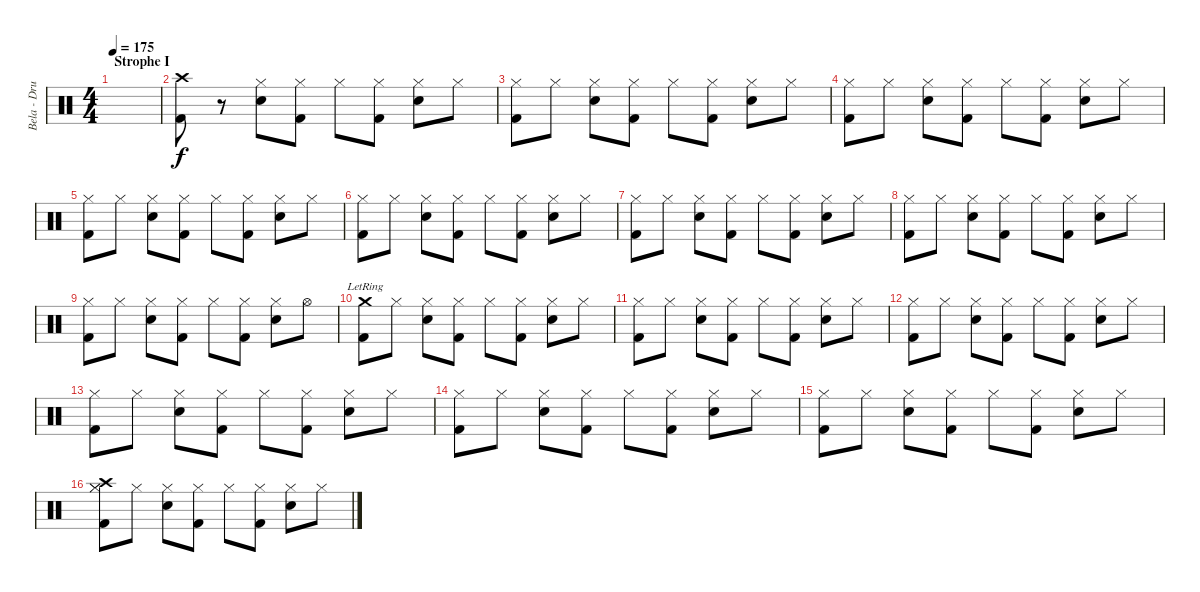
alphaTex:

\track ("Bela - Drums" "Bela - Dru") {instrument percussion}
\staff {score}
\articulation defaults
\ts (4 4)
\section ("" "Strophe I")
\tempo 175
\clef neutral
\ks c
|
("Crash high (hit)" "Kick (hit) 2").8 r.8 ("Hi-Hat (closed)" "Electric Snare (hit)").8{dy f} ("Hi-Hat (closed)" "Kick (hit) 2").8 "Hi-Hat (closed)".8 ("Hi-Hat (closed)" "Kick (hit) 2").8 ("Hi-Hat (closed)" "Electric Snare (hit)").8 "Hi-Hat (closed)".8 |
("Hi-Hat (closed)" "Kick (hit) 2").8 "Hi-Hat (closed)".8 ("Hi-Hat (closed)" "Electric Snare (hit)").8 ("Hi-Hat (closed)" "Kick (hit) 2").8 "Hi-Hat (closed)".8 ("Hi-Hat (closed)" "Kick (hit) 2").8 ("Hi-Hat (closed)" "Electric Snare (hit)").8 "Hi-Hat (closed)".8 |
("Hi-Hat (closed)" "Kick (hit) 2").8 "Hi-Hat (closed)".8 ("Hi-Hat (closed)" "Electric Snare (hit)").8 ("Hi-Hat (closed)" "Kick (hit) 2").8 "Hi-Hat (closed)".8 ("Hi-Hat (closed)" "Kick (hit) 2").8 ("Hi-Hat (closed)" "Electric Snare (hit)").8 "Hi-Hat (closed)".8 |
("Hi-Hat (closed)" "Kick (hit) 2").8 "Hi-Hat (closed)".8 ("Hi-Hat (closed)" "Electric Snare (hit)").8 ("Hi-Hat (closed)" "Kick (hit) 2").8 "Hi-Hat (closed)".8 ("Hi-Hat (closed)" "Kick (hit) 2").8 ("Hi-Hat (closed)" "Electric Snare (hit)").8 "Hi-Hat (closed)".8 |
("Hi-Hat (closed)" "Kick (hit) 2").8 "Hi-Hat (closed)".8 ("Hi-Hat (closed)" "Electric Snare (hit)").8 ("Hi-Hat (closed)" "Kick (hit) 2").8 "Hi-Hat (closed)".8 ("Hi-Hat (closed)" "Kick (hit) 2").8 ("Hi-Hat (closed)" "Electric Snare (hit)").8 "Hi-Hat (closed)".8 |
("Hi-Hat (closed)" "Kick (hit) 2").8 "Hi-Hat (closed)".8 ("Hi-Hat (closed)" "Electric Snare (hit)").8 ("Hi-Hat (closed)" "Kick (hit) 2").8 "Hi-Hat (closed)".8 ("Hi-Hat (closed)" "Kick (hit) 2").8 ("Hi-Hat (closed)" "Electric Snare (hit)").8 "Hi-Hat (closed)".8 |
("Hi-Hat (closed)" "Kick (hit) 2").8 "Hi-Hat (closed)".8 ("Hi-Hat (closed)" "Electric Snare (hit)").8 ("Hi-Hat (closed)" "Kick (hit) 2").8 "Hi-Hat (closed)".8 ("Hi-Hat (closed)" "Kick (hit) 2").8 ("Hi-Hat (closed)" "Electric Snare (hit)").8 "Hi-Hat (closed)".8 |
("Hi-Hat (closed)" "Kick (hit) 2").8 "Hi-Hat (closed)".8 ("Hi-Hat (closed)" "Electric Snare (hit)").8 ("Hi-Hat (closed)" "Kick (hit) 2").8 "Hi-Hat (closed)".8 ("Hi-Hat (closed)" "Kick (hit) 2").8 ("Hi-Hat (closed)" "Electric Snare (hit)").8 "Hi-Hat (open)".8 |
("Crash medium (hit)"{lr} "Kick (hit) 2").8 "Hi-Hat (closed)".8 ("Hi-Hat (closed)" "Electric Snare (hit)").8 ("Hi-Hat (closed)" "Kick (hit) 2").8 "Hi-Hat (closed)".8 ("Hi-Hat (closed)" "Kick (hit) 2").8 ("Hi-Hat (closed)" "Electric Snare (hit)").8 "Hi-Hat (closed)".8 |
("Hi-Hat (closed)" "Kick (hit) 2").8 "Hi-Hat (closed)".8 ("Hi-Hat (closed)" "Electric Snare (hit)").8 ("Hi-Hat (closed)" "Kick (hit) 2").8 "Hi-Hat (closed)".8 ("Hi-Hat (closed)" "Kick (hit) 2").8 ("Hi-Hat (closed)" "Electric Snare (hit)").8 "Hi-Hat (closed)".8 |
("Hi-Hat (closed)" "Kick (hit) 2").8 "Hi-Hat (closed)".8 ("Hi-Hat (closed)" "Electric Snare (hit)").8 ("Hi-Hat (closed)" "Kick (hit) 2").8 "Hi-Hat (closed)".8 ("Hi-Hat (closed)" "Kick (hit) 2").8 ("Hi-Hat (closed)" "Electric Snare (hit)").8 "Hi-Hat (closed)".8 |
("Hi-Hat (closed)" "Kick (hit) 2").8 "Hi-Hat (closed)".8 ("Hi-Hat (closed)" "Electric Snare (hit)").8 ("Hi-Hat (closed)" "Kick (hit) 2").8 "Hi-Hat (closed)".8 ("Hi-Hat (closed)" "Kick (hit) 2").8 ("Hi-Hat (closed)" "Electric Snare (hit)").8 "Hi-Hat (closed)".8 |
("Hi-Hat (closed)" "Kick (hit) 2").8 "Hi-Hat (closed)".8 ("Hi-Hat (closed)" "Electric Snare (hit)").8 ("Hi-Hat (closed)" "Kick (hit) 2").8 "Hi-Hat (closed)".8 ("Hi-Hat (closed)" "Kick (hit) 2").8 ("Hi-Hat (closed)" "Electric Snare (hit)").8 "Hi-Hat (closed)".8 |
("Hi-Hat (closed)" "Kick (hit) 2").8 "Hi-Hat (closed)".8 ("Hi-Hat (closed)" "Electric Snare (hit)").8 ("Hi-Hat (closed)" "Kick (hit) 2").8 "Hi-Hat (closed)".8 ("Hi-Hat (closed)" "Kick (hit) 2").8 ("Hi-Hat (closed)" "Electric Snare (hit)").8 "Hi-Hat (closed)".8 |
("Crash high (hit)" "Hi-Hat (closed)" "Hi-Hat (closed)" "Kick (hit) 2").8 "Hi-Hat (closed)".8 ("Hi-Hat (closed)" "Electric Snare (hit)").8 ("Hi-Hat (closed)" "Kick (hit) 2").8 "Hi-Hat (closed)".8 ("Hi-Hat (closed)" "Kick (hit) 2").8 ("Hi-Hat (closed)" "Electric Snare (hit)").8 "Hi-Hat (closed)".8
